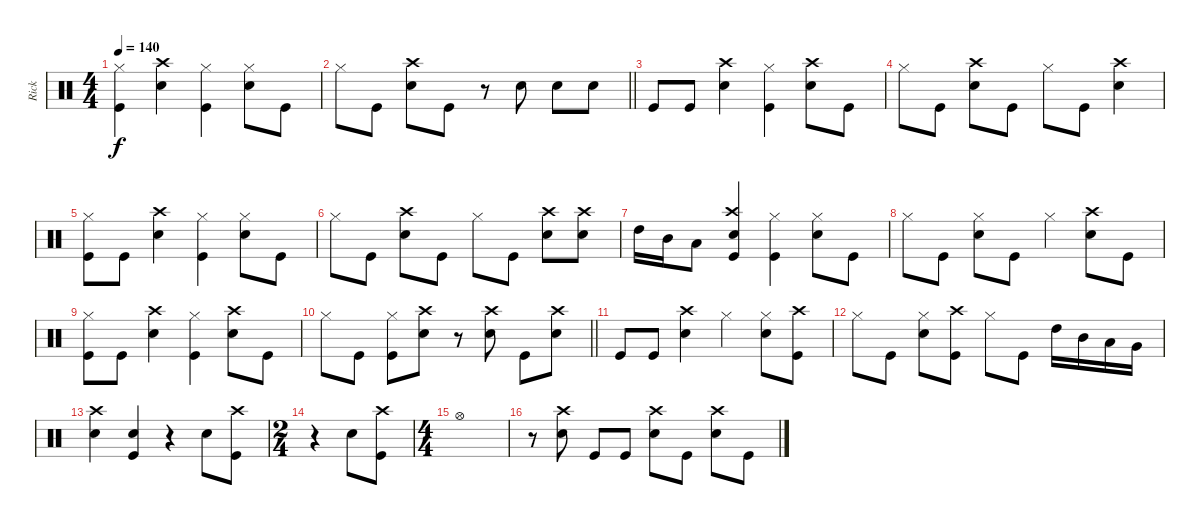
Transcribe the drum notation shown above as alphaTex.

\track ("Rick" "Rick") {instrument percussion}
\staff {score}
\articulation defaults
\ts (4 4)
\tempo 140
\clef neutral
\ks c
("Hi-Hat (closed)" "Kick (hit)").4{dy f} ("Crash high (hit)" "Snare (hit) 2").4 ("Hi-Hat (closed)" "Kick (hit)").4 ("Hi-Hat (closed)" "Snare (hit) 2").8 "Kick (hit)".8 |
\barLineRight lightlight "Hi-Hat (closed)".8 "Kick (hit)".8
("Crash high (hit)" "Snare (hit) 2").8 "Kick (hit)".8 r.8 "Snare (hit) 2".8 "Snare (hit) 2".8 "Snare (hit) 2".8 |
"Kick (hit)".8 "Kick (hit)".8 ("Crash high (hit)" "Snare (hit) 2").4 ("Hi-Hat (closed)" "Kick (hit)").4 ("Crash high (hit)" "Snare (hit) 2").8 "Kick (hit)".8 |
"Hi-Hat (closed)".8 "Kick (hit)".8 ("Crash high (hit)" "Snare (hit) 2").8 "Kick (hit)".8 "Hi-Hat (closed)".8 "Kick (hit)".8 ("Crash high (hit)" "Snare (hit) 2").4 |
("Hi-Hat (closed)" "Kick (hit)").8 "Kick (hit)".8 ("Crash high (hit)" "Snare (hit) 2").4 ("Hi-Hat (closed)" "Kick (hit)").4 ("Hi-Hat (closed)" "Snare (hit) 2").8 "Kick (hit)".8 |
"Hi-Hat (closed)".8 "Kick (hit)".8 ("Crash high (hit)" "Snare (hit) 2").8 "Kick (hit)".8 "Hi-Hat (closed)".8 "Kick (hit)".8 ("Crash high (hit)" "Snare (hit) 2").8 ("Crash high (hit)" "Snare (hit) 2").8 |
"High Tom (hit)".16 "Mid Tom (hit)".16 "Low Tom (hit)".8 ("Crash high (hit)" "Snare (hit) 2" "Kick (hit)").4 ("Hi-Hat (closed)" "Kick (hit)").4 ("Hi-Hat (closed)" "Snare (hit) 2").8 "Kick (hit)".8 |
"Hi-Hat (closed)".8 "Kick (hit)".8 ("Hi-Hat (closed)" "Snare (hit) 2").8 "Kick (hit)".8 "Hi-Hat (closed)".4 ("Crash high (hit)" "Snare (hit) 2").8 "Kick (hit)".8 |
("Hi-Hat (closed)" "Kick (hit)").8 "Kick (hit)".8 ("Crash high (hit)" "Snare (hit) 2").4 ("Hi-Hat (closed)" "Kick (hit)").4 ("Crash high (hit)" "Snare (hit) 2").8 "Kick (hit)".8 |
\barLineRight lightlight "Hi-Hat (closed)".8 "Kick (hit)".8
("Hi-Hat (closed)" "Kick (hit)").8 ("Crash high (hit)" "Snare (hit) 2").8 r.8 ("Crash high (hit)" "Snare (hit) 2").8 "Kick (hit)".8 ("Crash high (hit)" "Snare (hit) 2").8 |
"Kick (hit)".8 "Kick (hit)".8 ("Crash high (hit)" "Snare (hit) 2").4 "Hi-Hat (closed)".4 ("Hi-Hat (closed)" "Snare (hit) 2").8 ("Crash high (hit)" "Kick (hit)").8 |
"Hi-Hat (closed)".8 "Kick (hit)".8 ("Hi-Hat (closed)" "Snare (hit) 2").8 ("Crash high (hit)" "Kick (hit)").8 "Hi-Hat (closed)".8 "Kick (hit)".8 "High Tom (hit)".16 "Mid Tom (hit)".16 "Low Tom (hit)".16 "Very Low Tom (hit)".16 |
("Crash high (hit)" "Snare (hit) 2").4 ("Snare (hit) 2" "Kick (hit)").4 r.4 "Snare (hit) 2".8 ("Crash high (hit)" "Kick (hit)").8 |
\ts (2 4)
r.4 "Snare (hit) 2".8 ("Crash high (hit)" "Kick (hit)").8 |
\ts (4 4)
"Hi-Hat (open)".1 |
r.8 ("Crash high (hit)" "Snare (hit) 2").8 "Kick (hit)".8 "Kick (hit)".8 ("Crash high (hit)" "Snare (hit) 2").8 "Kick (hit)".8 ("Crash high (hit)" "Snare (hit) 2").8 "Kick (hit)".8
